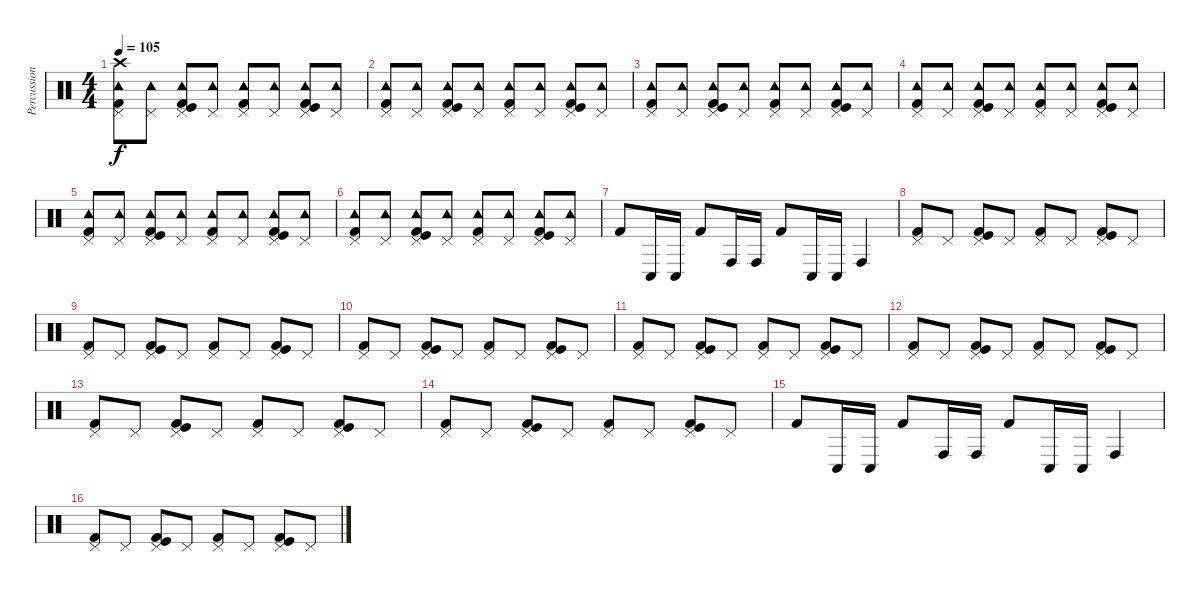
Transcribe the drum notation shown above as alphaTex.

\track ("Percussion" "Percussion") {instrument percussion}
\staff {score}
\articulation defaults
\ts (4 4)
\tempo 105
\clef neutral
\ks aminor
("Kick (hit) 2" "Pedal Hi-Hat (hit)" "Tambourine (hit)" "Crash high (hit)").8{dy f} ("Pedal Hi-Hat (hit)" "Tambourine (hit)").8 ("Kick (hit)" "Pedal Hi-Hat (hit)" "Tambourine (hit)" "Kick (hit) 2").8 ("Pedal Hi-Hat (hit)" "Tambourine (hit)").8 ("Kick (hit) 2" "Pedal Hi-Hat (hit)" "Tambourine (hit)").8 ("Pedal Hi-Hat (hit)" "Tambourine (hit)").8 ("Kick (hit)" "Pedal Hi-Hat (hit)" "Tambourine (hit)" "Kick (hit) 2").8 ("Pedal Hi-Hat (hit)" "Tambourine (hit)").8 |
("Kick (hit) 2" "Pedal Hi-Hat (hit)" "Tambourine (hit)").8 ("Pedal Hi-Hat (hit)" "Tambourine (hit)").8 ("Kick (hit)" "Pedal Hi-Hat (hit)" "Tambourine (hit)" "Kick (hit) 2").8 ("Pedal Hi-Hat (hit)" "Tambourine (hit)").8 ("Kick (hit) 2" "Pedal Hi-Hat (hit)" "Tambourine (hit)").8 ("Pedal Hi-Hat (hit)" "Tambourine (hit)").8 ("Kick (hit)" "Pedal Hi-Hat (hit)" "Tambourine (hit)" "Kick (hit) 2").8 ("Pedal Hi-Hat (hit)" "Tambourine (hit)").8 |
("Kick (hit) 2" "Pedal Hi-Hat (hit)" "Tambourine (hit)").8 ("Pedal Hi-Hat (hit)" "Tambourine (hit)").8 ("Kick (hit)" "Pedal Hi-Hat (hit)" "Tambourine (hit)" "Kick (hit) 2").8 ("Pedal Hi-Hat (hit)" "Tambourine (hit)").8 ("Kick (hit) 2" "Pedal Hi-Hat (hit)" "Tambourine (hit)").8 ("Pedal Hi-Hat (hit)" "Tambourine (hit)").8 ("Kick (hit)" "Pedal Hi-Hat (hit)" "Tambourine (hit)" "Kick (hit) 2").8 ("Pedal Hi-Hat (hit)" "Tambourine (hit)").8 |
("Kick (hit) 2" "Pedal Hi-Hat (hit)" "Tambourine (hit)").8 ("Pedal Hi-Hat (hit)" "Tambourine (hit)").8 ("Kick (hit)" "Pedal Hi-Hat (hit)" "Tambourine (hit)" "Kick (hit) 2").8 ("Pedal Hi-Hat (hit)" "Tambourine (hit)").8 ("Kick (hit) 2" "Pedal Hi-Hat (hit)" "Tambourine (hit)").8 ("Pedal Hi-Hat (hit)" "Tambourine (hit)").8 ("Kick (hit)" "Pedal Hi-Hat (hit)" "Tambourine (hit)" "Kick (hit) 2").8 ("Pedal Hi-Hat (hit)" "Tambourine (hit)").8 |
("Kick (hit) 2" "Pedal Hi-Hat (hit)" "Tambourine (hit)").8 ("Pedal Hi-Hat (hit)" "Tambourine (hit)").8 ("Kick (hit)" "Pedal Hi-Hat (hit)" "Tambourine (hit)" "Kick (hit) 2").8 ("Pedal Hi-Hat (hit)" "Tambourine (hit)").8 ("Kick (hit) 2" "Pedal Hi-Hat (hit)" "Tambourine (hit)").8 ("Pedal Hi-Hat (hit)" "Tambourine (hit)").8 ("Kick (hit)" "Pedal Hi-Hat (hit)" "Tambourine (hit)" "Kick (hit) 2").8 ("Pedal Hi-Hat (hit)" "Tambourine (hit)").8 |
("Kick (hit) 2" "Pedal Hi-Hat (hit)" "Tambourine (hit)").8 ("Pedal Hi-Hat (hit)" "Tambourine (hit)").8 ("Kick (hit)" "Pedal Hi-Hat (hit)" "Tambourine (hit)" "Kick (hit) 2").8 ("Pedal Hi-Hat (hit)" "Tambourine (hit)").8 ("Kick (hit) 2" "Pedal Hi-Hat (hit)" "Tambourine (hit)").8 ("Pedal Hi-Hat (hit)" "Tambourine (hit)").8 ("Kick (hit)" "Pedal Hi-Hat (hit)" "Tambourine (hit)" "Kick (hit) 2").8 ("Pedal Hi-Hat (hit)" "Tambourine (hit)").8 |
"Kick (hit) 2".8 "Conga low (hit)".16 "Conga low (hit)".16 "Kick (hit) 2".8 "Conga high (hit)".16 "Conga high (hit)".16 "Kick (hit) 2".8 "Conga low (hit)".16 "Conga low (hit)".16 "Conga high (hit)".4 |
("Kick (hit) 2" "Pedal Hi-Hat (hit)").8 "Pedal Hi-Hat (hit)".8 ("Kick (hit)" "Pedal Hi-Hat (hit)" "Kick (hit) 2").8 "Pedal Hi-Hat (hit)".8 ("Kick (hit) 2" "Pedal Hi-Hat (hit)").8 "Pedal Hi-Hat (hit)".8 ("Kick (hit)" "Pedal Hi-Hat (hit)" "Kick (hit) 2").8 "Pedal Hi-Hat (hit)".8 |
("Kick (hit) 2" "Pedal Hi-Hat (hit)").8 "Pedal Hi-Hat (hit)".8 ("Kick (hit)" "Pedal Hi-Hat (hit)" "Kick (hit) 2").8 "Pedal Hi-Hat (hit)".8 ("Kick (hit) 2" "Pedal Hi-Hat (hit)").8 "Pedal Hi-Hat (hit)".8 ("Kick (hit)" "Pedal Hi-Hat (hit)" "Kick (hit) 2").8 "Pedal Hi-Hat (hit)".8 |
("Kick (hit) 2" "Pedal Hi-Hat (hit)").8 "Pedal Hi-Hat (hit)".8 ("Kick (hit)" "Pedal Hi-Hat (hit)" "Kick (hit) 2").8 "Pedal Hi-Hat (hit)".8 ("Kick (hit) 2" "Pedal Hi-Hat (hit)").8 "Pedal Hi-Hat (hit)".8 ("Kick (hit)" "Pedal Hi-Hat (hit)" "Kick (hit) 2").8 "Pedal Hi-Hat (hit)".8 |
("Kick (hit) 2" "Pedal Hi-Hat (hit)").8 "Pedal Hi-Hat (hit)".8 ("Kick (hit)" "Pedal Hi-Hat (hit)" "Kick (hit) 2").8 "Pedal Hi-Hat (hit)".8 ("Kick (hit) 2" "Pedal Hi-Hat (hit)").8 "Pedal Hi-Hat (hit)".8 ("Kick (hit)" "Pedal Hi-Hat (hit)" "Kick (hit) 2").8 "Pedal Hi-Hat (hit)".8 |
("Kick (hit) 2" "Pedal Hi-Hat (hit)").8 "Pedal Hi-Hat (hit)".8 ("Kick (hit)" "Pedal Hi-Hat (hit)" "Kick (hit) 2").8 "Pedal Hi-Hat (hit)".8 ("Kick (hit) 2" "Pedal Hi-Hat (hit)").8 "Pedal Hi-Hat (hit)".8 ("Kick (hit)" "Pedal Hi-Hat (hit)" "Kick (hit) 2").8 "Pedal Hi-Hat (hit)".8 |
("Kick (hit) 2" "Pedal Hi-Hat (hit)").8 "Pedal Hi-Hat (hit)".8 ("Kick (hit)" "Pedal Hi-Hat (hit)" "Kick (hit) 2").8 "Pedal Hi-Hat (hit)".8 ("Kick (hit) 2" "Pedal Hi-Hat (hit)").8 "Pedal Hi-Hat (hit)".8 ("Kick (hit)" "Pedal Hi-Hat (hit)" "Kick (hit) 2").8 "Pedal Hi-Hat (hit)".8 |
("Kick (hit) 2" "Pedal Hi-Hat (hit)").8 "Pedal Hi-Hat (hit)".8 ("Kick (hit)" "Pedal Hi-Hat (hit)" "Kick (hit) 2").8 "Pedal Hi-Hat (hit)".8 ("Kick (hit) 2" "Pedal Hi-Hat (hit)").8 "Pedal Hi-Hat (hit)".8 ("Kick (hit)" "Pedal Hi-Hat (hit)" "Kick (hit) 2").8 "Pedal Hi-Hat (hit)".8 |
"Kick (hit) 2".8 "Conga low (hit)".16 "Conga low (hit)".16 "Kick (hit) 2".8 "Conga high (hit)".16 "Conga high (hit)".16 "Kick (hit) 2".8 "Conga low (hit)".16 "Conga low (hit)".16 "Conga high (hit)".4 |
("Kick (hit) 2" "Pedal Hi-Hat (hit)").8 "Pedal Hi-Hat (hit)".8 ("Kick (hit)" "Pedal Hi-Hat (hit)" "Kick (hit) 2").8 "Pedal Hi-Hat (hit)".8 ("Kick (hit) 2" "Pedal Hi-Hat (hit)").8 "Pedal Hi-Hat (hit)".8 ("Kick (hit)" "Pedal Hi-Hat (hit)" "Kick (hit) 2").8 "Pedal Hi-Hat (hit)".8
